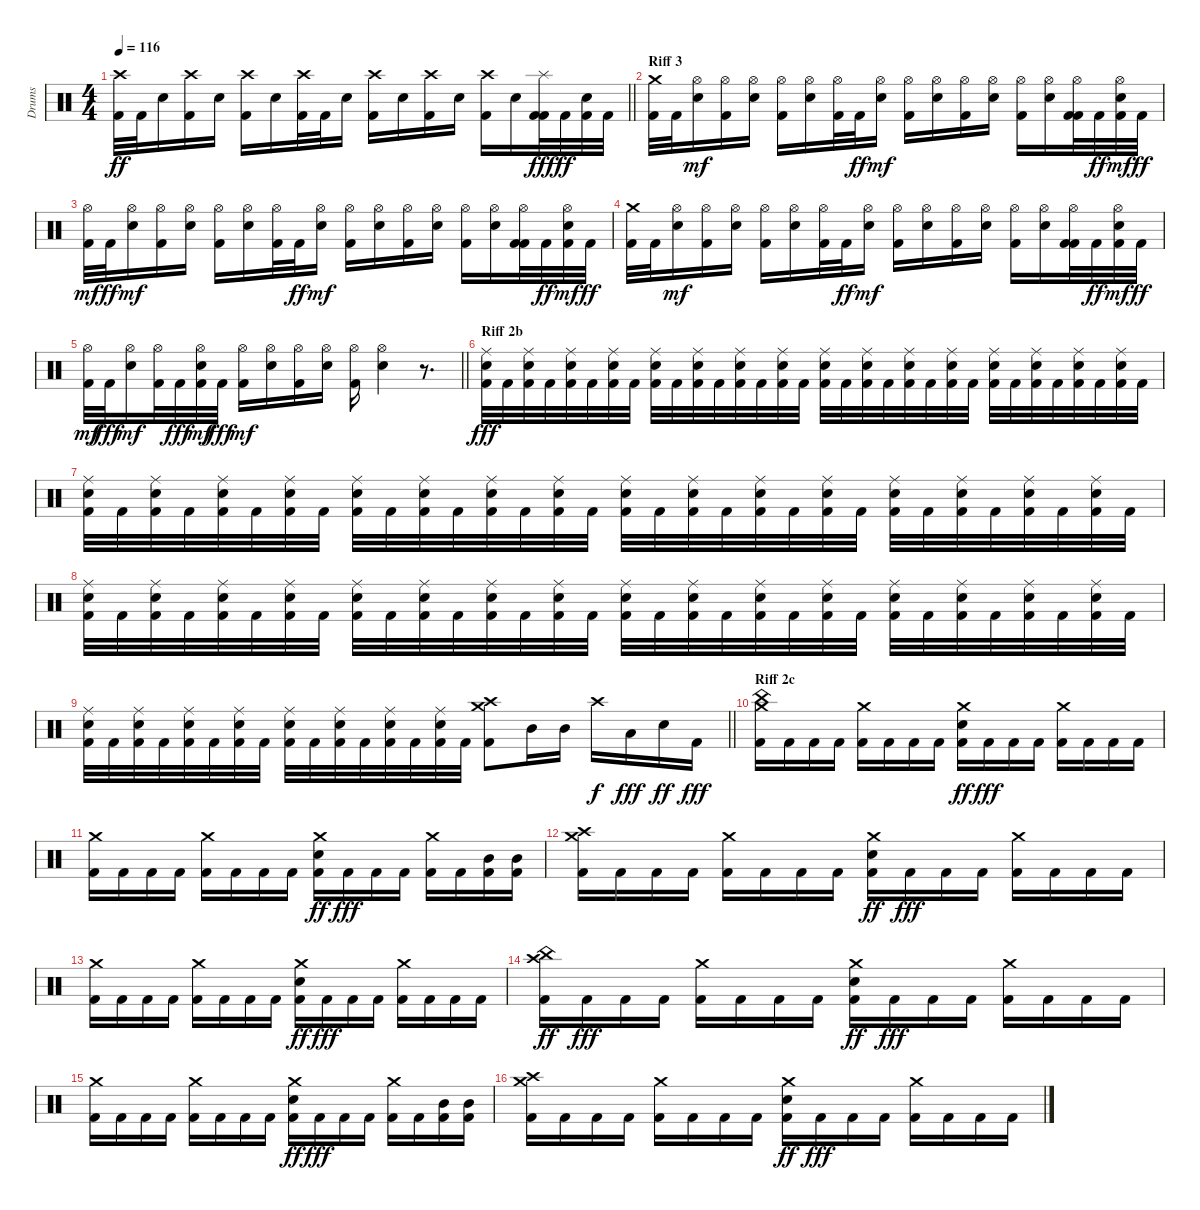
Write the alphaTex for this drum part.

\track ("Drums" "Drums") {instrument percussion}
\staff {score}
\articulation defaults
\ts (4 4)
\tempo 116
\clef neutral
\barLineRight lightlight
\ks c
("Kick (hit) 2" "Crash high (hit)").32{dy ff} "Kick (hit) 2".32 "Snare (hit) 2".16 ("Kick (hit) 2" "Crash high (hit)").16 "Snare (hit) 2".16 ("Kick (hit) 2" "Crash high (hit)").16 "Snare (hit) 2".16 ("Kick (hit) 2" "Crash high (hit)").32 "Kick (hit) 2".32 "Snare (hit) 2".16 ("Kick (hit) 2" "Crash high (hit)").16 "Snare (hit) 2".16 ("Kick (hit) 2" "Crash high (hit)").16 "Snare (hit) 2".16 ("Kick (hit) 2" "Crash high (hit)").16 "Snare (hit) 2".16 ("Kick (hit) 2" "Kick (hit) 2" "Splash (hit)").32{dy fff} "Kick (hit) 2".32{dy ff} ("Kick (hit) 2" "Snare (hit) 2").32 "Kick (hit) 2".32 |
\section ("" "Riff 3")
("Kick (hit) 2" "Crash medium (hit)").32 "Kick (hit) 2".32 ("Snare (hit) 2" "Hi-Hat (open)").16{dy mf} ("Kick (hit) 2" "Hi-Hat (open)").16 ("Snare (hit) 2" "Hi-Hat (open)").16 ("Kick (hit) 2" "Hi-Hat (open)").16 ("Snare (hit) 2" "Hi-Hat (open)").16 ("Kick (hit) 2" "Hi-Hat (open)").32 "Kick (hit) 2".32{dy ff} ("Snare (hit) 2" "Hi-Hat (open)").16{dy mf} ("Kick (hit) 2" "Hi-Hat (open)").16 ("Snare (hit) 2" "Hi-Hat (open)").16 ("Kick (hit) 2" "Hi-Hat (open)").16 ("Snare (hit) 2" "Hi-Hat (open)").16 ("Kick (hit) 2" "Hi-Hat (open)").16 ("Snare (hit) 2" "Hi-Hat (open)").16 ("Kick (hit) 2" "Kick (hit) 2" "Hi-Hat (open)").32 "Kick (hit) 2".32{dy ff} ("Kick (hit) 2" "Snare (hit) 2" "Hi-Hat (open)").32{dy mf} "Kick (hit) 2".32{dy ff} |
("Kick (hit) 2" "Hi-Hat (open)").32{dy mf} "Kick (hit) 2".32{dy ff} ("Snare (hit) 2" "Hi-Hat (open)").16{dy mf} ("Kick (hit) 2" "Hi-Hat (open)").16 ("Snare (hit) 2" "Hi-Hat (open)").16 ("Kick (hit) 2" "Hi-Hat (open)").16 ("Snare (hit) 2" "Hi-Hat (open)").16 ("Kick (hit) 2" "Hi-Hat (open)").32 "Kick (hit) 2".32{dy ff} ("Snare (hit) 2" "Hi-Hat (open)").16{dy mf} ("Kick (hit) 2" "Hi-Hat (open)").16 ("Snare (hit) 2" "Hi-Hat (open)").16 ("Kick (hit) 2" "Hi-Hat (open)").16 ("Snare (hit) 2" "Hi-Hat (open)").16 ("Kick (hit) 2" "Hi-Hat (open)").16 ("Snare (hit) 2" "Hi-Hat (open)").16 ("Kick (hit) 2" "Kick (hit) 2" "Hi-Hat (open)").32 "Kick (hit) 2".32{dy ff} ("Kick (hit) 2" "Snare (hit) 2" "Hi-Hat (open)").32{dy mf} "Kick (hit) 2".32{dy ff} |
("Kick (hit) 2" "Crash medium (hit)").32 "Kick (hit) 2".32 ("Snare (hit) 2" "Hi-Hat (open)").16{dy mf} ("Kick (hit) 2" "Hi-Hat (open)").16 ("Snare (hit) 2" "Hi-Hat (open)").16 ("Kick (hit) 2" "Hi-Hat (open)").16 ("Snare (hit) 2" "Hi-Hat (open)").16 ("Kick (hit) 2" "Hi-Hat (open)").32 "Kick (hit) 2".32{dy ff} ("Snare (hit) 2" "Hi-Hat (open)").16{dy mf} ("Kick (hit) 2" "Hi-Hat (open)").16 ("Snare (hit) 2" "Hi-Hat (open)").16 ("Kick (hit) 2" "Hi-Hat (open)").16 ("Snare (hit) 2" "Hi-Hat (open)").16 ("Kick (hit) 2" "Hi-Hat (open)").16 ("Snare (hit) 2" "Hi-Hat (open)").16 ("Kick (hit) 2" "Kick (hit) 2" "Hi-Hat (open)").32 "Kick (hit) 2".32{dy ff} ("Kick (hit) 2" "Snare (hit) 2" "Hi-Hat (open)").32{dy mf} "Kick (hit) 2".32{dy ff} |
\barLineRight lightlight
("Kick (hit) 2" "Hi-Hat (open)").32{dy mf} "Kick (hit) 2".32{dy fff} ("Snare (hit) 2" "Hi-Hat (open)").16{dy mf} ("Kick (hit) 2" "Hi-Hat (open)").32 "Kick (hit) 2".32{dy fff} ("Kick (hit) 2" "Snare (hit) 2" "Hi-Hat (open)").32{dy mf} "Kick (hit) 2".32{dy fff} ("Kick (hit) 2" "Hi-Hat (open)").16{dy mf} ("Snare (hit) 2" "Hi-Hat (open)").16 ("Kick (hit) 2" "Hi-Hat (open)").16 ("Snare (hit) 2" "Hi-Hat (open)").16 ("Kick (hit) 2" "Hi-Hat (open)").16 ("Snare (hit) 2" "Hi-Hat (open)").4 r.8{d} |
\section ("" "Riff 2b")
("Kick (hit) 2" "Snare (hit) 2" "Ride (middle)").32{dy fff} "Kick (hit) 2".32 ("Kick (hit) 2" "Snare (hit) 2" "Ride (middle)").32 "Kick (hit) 2".32 ("Kick (hit) 2" "Snare (hit) 2" "Ride (middle)").32 "Kick (hit) 2".32 ("Kick (hit) 2" "Snare (hit) 2" "Ride (middle)").32 "Kick (hit) 2".32 ("Kick (hit) 2" "Snare (hit) 2" "Ride (middle)").32 "Kick (hit) 2".32 ("Kick (hit) 2" "Snare (hit) 2" "Ride (middle)").32 "Kick (hit) 2".32 ("Kick (hit) 2" "Snare (hit) 2" "Ride (middle)").32 "Kick (hit) 2".32 ("Kick (hit) 2" "Snare (hit) 2" "Ride (middle)").32 "Kick (hit) 2".32 ("Kick (hit) 2" "Snare (hit) 2" "Ride (middle)").32 "Kick (hit) 2".32 ("Kick (hit) 2" "Snare (hit) 2" "Ride (middle)").32 "Kick (hit) 2".32 ("Kick (hit) 2" "Snare (hit) 2" "Ride (middle)").32 "Kick (hit) 2".32 ("Kick (hit) 2" "Snare (hit) 2" "Ride (middle)").32 "Kick (hit) 2".32 ("Kick (hit) 2" "Snare (hit) 2" "Ride (middle)").32 "Kick (hit) 2".32 ("Kick (hit) 2" "Snare (hit) 2" "Ride (middle)").32 "Kick (hit) 2".32 ("Kick (hit) 2" "Snare (hit) 2" "Ride (middle)").32 "Kick (hit) 2".32 ("Kick (hit) 2" "Snare (hit) 2" "Ride (middle)").32 "Kick (hit) 2".32 |
("Kick (hit) 2" "Snare (hit) 2" "Ride (middle)").32 "Kick (hit) 2".32 ("Kick (hit) 2" "Snare (hit) 2" "Ride (middle)").32 "Kick (hit) 2".32 ("Kick (hit) 2" "Snare (hit) 2" "Ride (middle)").32 "Kick (hit) 2".32 ("Kick (hit) 2" "Snare (hit) 2" "Ride (middle)").32 "Kick (hit) 2".32 ("Kick (hit) 2" "Snare (hit) 2" "Ride (middle)").32 "Kick (hit) 2".32 ("Kick (hit) 2" "Snare (hit) 2" "Ride (middle)").32 "Kick (hit) 2".32 ("Kick (hit) 2" "Snare (hit) 2" "Ride (middle)").32 "Kick (hit) 2".32 ("Kick (hit) 2" "Snare (hit) 2" "Ride (middle)").32 "Kick (hit) 2".32 ("Kick (hit) 2" "Snare (hit) 2" "Ride (middle)").32 "Kick (hit) 2".32 ("Kick (hit) 2" "Snare (hit) 2" "Ride (middle)").32 "Kick (hit) 2".32 ("Kick (hit) 2" "Snare (hit) 2" "Ride (middle)").32 "Kick (hit) 2".32 ("Kick (hit) 2" "Snare (hit) 2" "Ride (middle)").32 "Kick (hit) 2".32 ("Kick (hit) 2" "Snare (hit) 2" "Ride (middle)").32 "Kick (hit) 2".32 ("Kick (hit) 2" "Snare (hit) 2" "Ride (middle)").32 "Kick (hit) 2".32 ("Kick (hit) 2" "Snare (hit) 2" "Ride (middle)").32 "Kick (hit) 2".32 ("Kick (hit) 2" "Snare (hit) 2" "Ride (middle)").32 "Kick (hit) 2".32 |
("Kick (hit) 2" "Snare (hit) 2" "Ride (middle)").32 "Kick (hit) 2".32 ("Kick (hit) 2" "Snare (hit) 2" "Ride (middle)").32 "Kick (hit) 2".32 ("Kick (hit) 2" "Snare (hit) 2" "Ride (middle)").32 "Kick (hit) 2".32 ("Kick (hit) 2" "Snare (hit) 2" "Ride (middle)").32 "Kick (hit) 2".32 ("Kick (hit) 2" "Snare (hit) 2" "Ride (middle)").32 "Kick (hit) 2".32 ("Kick (hit) 2" "Snare (hit) 2" "Ride (middle)").32 "Kick (hit) 2".32 ("Kick (hit) 2" "Snare (hit) 2" "Ride (middle)").32 "Kick (hit) 2".32 ("Kick (hit) 2" "Snare (hit) 2" "Ride (middle)").32 "Kick (hit) 2".32 ("Kick (hit) 2" "Snare (hit) 2" "Ride (middle)").32 "Kick (hit) 2".32 ("Kick (hit) 2" "Snare (hit) 2" "Ride (middle)").32 "Kick (hit) 2".32 ("Kick (hit) 2" "Snare (hit) 2" "Ride (middle)").32 "Kick (hit) 2".32 ("Kick (hit) 2" "Snare (hit) 2" "Ride (middle)").32 "Kick (hit) 2".32 ("Kick (hit) 2" "Snare (hit) 2" "Ride (middle)").32 "Kick (hit) 2".32 ("Kick (hit) 2" "Snare (hit) 2" "Ride (middle)").32 "Kick (hit) 2".32 ("Kick (hit) 2" "Snare (hit) 2" "Ride (middle)").32 "Kick (hit) 2".32 ("Kick (hit) 2" "Snare (hit) 2" "Ride (middle)").32 "Kick (hit) 2".32 |
\barLineRight lightlight
("Kick (hit) 2" "Snare (hit) 2" "Ride (middle)").32 "Kick (hit) 2".32 ("Kick (hit) 2" "Snare (hit) 2" "Ride (middle)").32 "Kick (hit) 2".32 ("Kick (hit) 2" "Snare (hit) 2" "Ride (middle)").32 "Kick (hit) 2".32 ("Kick (hit) 2" "Snare (hit) 2" "Ride (middle)").32 "Kick (hit) 2".32 ("Kick (hit) 2" "Snare (hit) 2" "Ride (middle)").32 "Kick (hit) 2".32 ("Kick (hit) 2" "Snare (hit) 2" "Ride (middle)").32 "Kick (hit) 2".32 ("Kick (hit) 2" "Snare (hit) 2" "Ride (middle)").32 "Kick (hit) 2".32 ("Kick (hit) 2" "Snare (hit) 2" "Ride (middle)").32 "Kick (hit) 2".32 ("Kick (hit) 2" "Crash high (hit)" "Crash medium (hit)").8 "Mid Tom (hit)".16 "Mid Tom (hit)".16 "Crash high (hit)".16{dy f} "Low Tom (hit)".16{dy fff} "Snare (hit) 2".16{dy ff} "Kick (hit) 2".16{dy fff} |
\section ("" "Riff 2c")
("Kick (hit) 2" "Crash medium (hit)" "China (hit)").16 "Kick (hit) 2".16 "Kick (hit) 2".16 "Kick (hit) 2".16 ("Kick (hit) 2" "Crash medium (hit)").16 "Kick (hit) 2".16 "Kick (hit) 2".16 "Kick (hit) 2".16 ("Kick (hit) 2" "Snare (hit) 2" "Crash medium (hit)").16{dy ff} "Kick (hit) 2".16{dy fff} "Kick (hit) 2".16 "Kick (hit) 2".16 ("Kick (hit) 2" "Crash medium (hit)").16 "Kick (hit) 2".16 "Kick (hit) 2".16 "Kick (hit) 2".16 |
("Kick (hit) 2" "Crash medium (hit)").16 "Kick (hit) 2".16 "Kick (hit) 2".16 "Kick (hit) 2".16 ("Kick (hit) 2" "Crash medium (hit)").16 "Kick (hit) 2".16 "Kick (hit) 2".16 "Kick (hit) 2".16 ("Kick (hit) 2" "Snare (hit) 2" "Crash medium (hit)").16{dy ff} "Kick (hit) 2".16{dy fff} "Kick (hit) 2".16 "Kick (hit) 2".16 ("Kick (hit) 2" "Crash medium (hit)").16 "Kick (hit) 2".16 ("Kick (hit) 2" "Mid Tom (hit)").16 ("Kick (hit) 2" "Mid Tom (hit)").16 |
("Kick (hit) 2" "Crash medium (hit)" "Crash high (hit)").16 "Kick (hit) 2".16 "Kick (hit) 2".16 "Kick (hit) 2".16 ("Kick (hit) 2" "Crash medium (hit)").16 "Kick (hit) 2".16 "Kick (hit) 2".16 "Kick (hit) 2".16 ("Kick (hit) 2" "Snare (hit) 2" "Crash medium (hit)").16{dy ff} "Kick (hit) 2".16{dy fff} "Kick (hit) 2".16 "Kick (hit) 2".16 ("Kick (hit) 2" "Crash medium (hit)").16 "Kick (hit) 2".16 "Kick (hit) 2".16 "Kick (hit) 2".16 |
("Kick (hit) 2" "Crash medium (hit)").16 "Kick (hit) 2".16 "Kick (hit) 2".16 "Kick (hit) 2".16 ("Kick (hit) 2" "Crash medium (hit)").16 "Kick (hit) 2".16 "Kick (hit) 2".16 "Kick (hit) 2".16 ("Kick (hit) 2" "Snare (hit) 2" "Crash medium (hit)").16{dy ff} "Kick (hit) 2".16{dy fff} "Kick (hit) 2".16 "Kick (hit) 2".16 ("Kick (hit) 2" "Crash medium (hit)").16 "Kick (hit) 2".16 "Kick (hit) 2".16 "Kick (hit) 2".16 |
("Kick (hit) 2" "Crash high (hit)" "China (hit)").16{dy ff} "Kick (hit) 2".16{dy fff} "Kick (hit) 2".16 "Kick (hit) 2".16 ("Kick (hit) 2" "Crash medium (hit)").16 "Kick (hit) 2".16 "Kick (hit) 2".16 "Kick (hit) 2".16 ("Kick (hit) 2" "Snare (hit) 2" "Crash medium (hit)").16{dy ff} "Kick (hit) 2".16{dy fff} "Kick (hit) 2".16 "Kick (hit) 2".16 ("Kick (hit) 2" "Crash medium (hit)").16 "Kick (hit) 2".16 "Kick (hit) 2".16 "Kick (hit) 2".16 |
("Kick (hit) 2" "Crash medium (hit)").16 "Kick (hit) 2".16 "Kick (hit) 2".16 "Kick (hit) 2".16 ("Kick (hit) 2" "Crash medium (hit)").16 "Kick (hit) 2".16 "Kick (hit) 2".16 "Kick (hit) 2".16 ("Kick (hit) 2" "Snare (hit) 2" "Crash medium (hit)").16{dy ff} "Kick (hit) 2".16{dy fff} "Kick (hit) 2".16 "Kick (hit) 2".16 ("Kick (hit) 2" "Crash medium (hit)").16 "Kick (hit) 2".16 ("Kick (hit) 2" "Mid Tom (hit)").16 ("Kick (hit) 2" "Mid Tom (hit)").16 |
("Kick (hit) 2" "Crash medium (hit)" "Crash high (hit)").16 "Kick (hit) 2".16 "Kick (hit) 2".16 "Kick (hit) 2".16 ("Kick (hit) 2" "Crash medium (hit)").16 "Kick (hit) 2".16 "Kick (hit) 2".16 "Kick (hit) 2".16 ("Kick (hit) 2" "Snare (hit) 2" "Crash medium (hit)").16{dy ff} "Kick (hit) 2".16{dy fff} "Kick (hit) 2".16 "Kick (hit) 2".16 ("Kick (hit) 2" "Crash medium (hit)").16 "Kick (hit) 2".16 "Kick (hit) 2".16 "Kick (hit) 2".16
